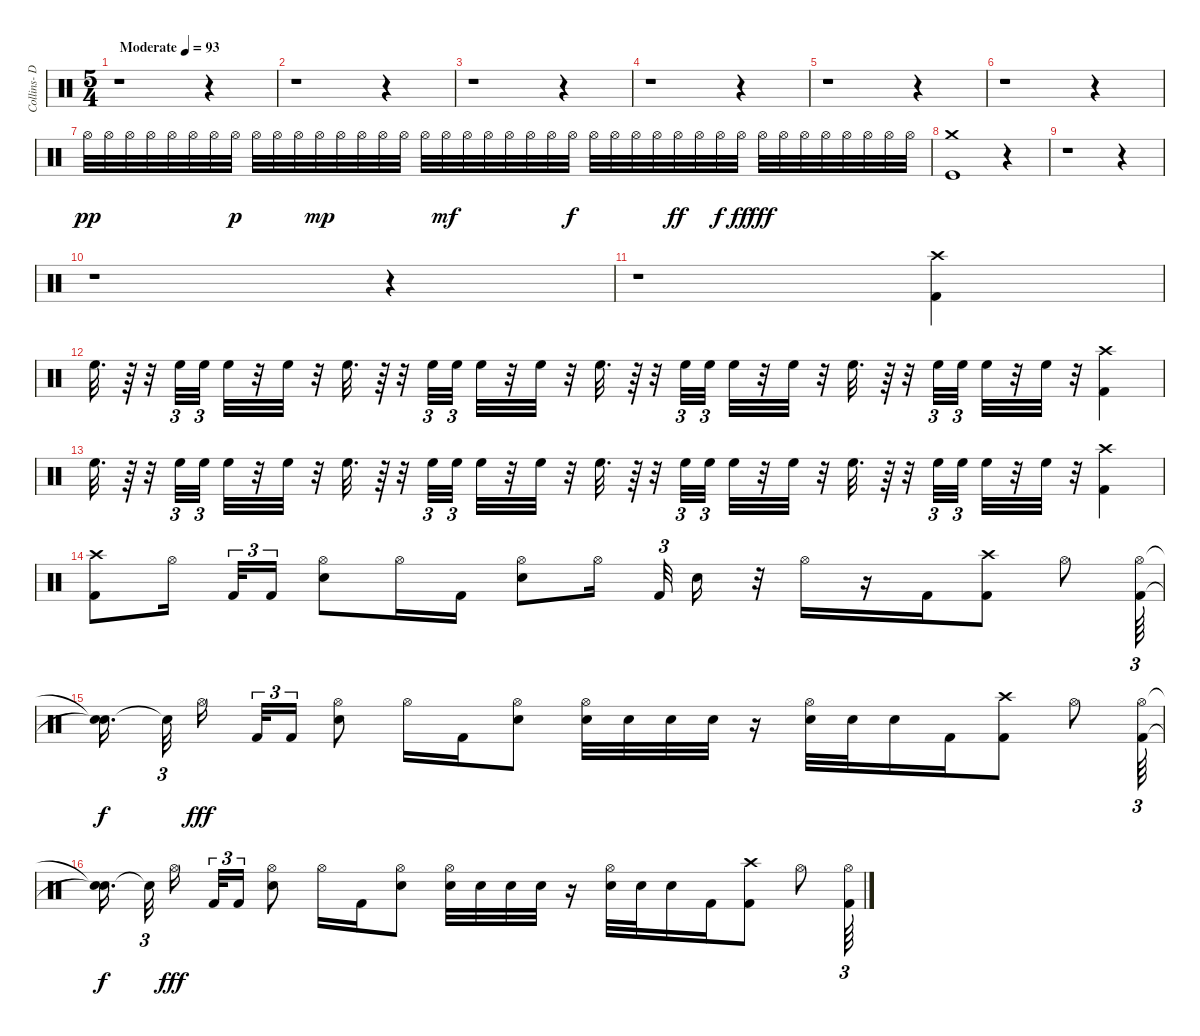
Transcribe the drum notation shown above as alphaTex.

\track ("Collins- Drums" "Collins- D") {instrument percussion}
\staff {score}
\articulation defaults
\ts (5 4)
\tempo (93 "Moderate")
\clef neutral
\ks c
r.1{dy pp} r.4 |
r.1 r.4 |
r.1 r.4 |
r.1 r.4 |
r.1 r.4 |
r.1 r.4 |
"Hi-Hat (open)".32 "Hi-Hat (open)".32 "Hi-Hat (open)".32 "Hi-Hat (open)".32 "Hi-Hat (open)".32 "Hi-Hat (open)".32 "Hi-Hat (open)".32 "Hi-Hat (open)".32{dy p} "Hi-Hat (open)".32 "Hi-Hat (open)".32 "Hi-Hat (open)".32 "Hi-Hat (open)".32{dy mp} "Hi-Hat (open)".32 "Hi-Hat (open)".32 "Hi-Hat (open)".32 "Hi-Hat (open)".32 "Hi-Hat (open)".32 "Hi-Hat (open)".32{dy mf} "Hi-Hat (open)".32 "Hi-Hat (open)".32 "Hi-Hat (open)".32 "Hi-Hat (open)".32 "Hi-Hat (open)".32 "Hi-Hat (open)".32{dy f} "Hi-Hat (open)".32 "Hi-Hat (open)".32 "Hi-Hat (open)".32 "Hi-Hat (open)".32 "Hi-Hat (open)".32{dy ff} "Hi-Hat (open)".32 "Hi-Hat (open)".32{dy f} "Hi-Hat (open)".32{dy ff} "Hi-Hat (open)".32{dy fff} "Hi-Hat (open)".32 "Hi-Hat (open)".32 "Hi-Hat (open)".32 "Hi-Hat (open)".32 "Hi-Hat (open)".32 "Hi-Hat (open)".32 "Hi-Hat (open)".32 |
("Crash medium (hit)" "Kick (hit)").1 r.4 |
r.1 r.4 |
r.1 r.4 |
r.1 ("Crash high (hit)" "Kick (hit) 2").4 |
"High Floor Tom (hit)".32{d} r.64 r.32 "High Floor Tom (hit)".32{tu (3 2)} "High Floor Tom (hit)".32{tu (3 2) beam splitsecondary} "High Floor Tom (hit)".32 r.32 "High Floor Tom (hit)".32 r.32 "High Floor Tom (hit)".32{d} r.64 r.32 "High Floor Tom (hit)".32{tu (3 2)} "High Floor Tom (hit)".32{tu (3 2) beam splitsecondary} "High Floor Tom (hit)".32 r.32 "High Floor Tom (hit)".32 r.32 "High Floor Tom (hit)".32{d} r.64 r.32 "High Floor Tom (hit)".32{tu (3 2)} "High Floor Tom (hit)".32{tu (3 2) beam splitsecondary} "High Floor Tom (hit)".32 r.32 "High Floor Tom (hit)".32 r.32 "High Floor Tom (hit)".32{d} r.64 r.32 "High Floor Tom (hit)".32{tu (3 2)} "High Floor Tom (hit)".32{tu (3 2) beam splitsecondary} "High Floor Tom (hit)".32 r.32 "High Floor Tom (hit)".32 r.32 ("Crash high (hit)" "Kick (hit) 2").4 |
"High Floor Tom (hit)".32{d} r.64 r.32 "High Floor Tom (hit)".32{tu (3 2)} "High Floor Tom (hit)".32{tu (3 2) beam splitsecondary} "High Floor Tom (hit)".32 r.32 "High Floor Tom (hit)".32 r.32 "High Floor Tom (hit)".32{d} r.64 r.32 "High Floor Tom (hit)".32{tu (3 2)} "High Floor Tom (hit)".32{tu (3 2) beam splitsecondary} "High Floor Tom (hit)".32 r.32 "High Floor Tom (hit)".32 r.32 "High Floor Tom (hit)".32{d} r.64 r.32 "High Floor Tom (hit)".32{tu (3 2)} "High Floor Tom (hit)".32{tu (3 2) beam splitsecondary} "High Floor Tom (hit)".32 r.32 "High Floor Tom (hit)".32 r.32 "High Floor Tom (hit)".32{d} r.64 r.32 "High Floor Tom (hit)".32{tu (3 2)} "High Floor Tom (hit)".32{tu (3 2) beam splitsecondary} "High Floor Tom (hit)".32 r.32 "High Floor Tom (hit)".32 r.32 ("Crash high (hit)" "Kick (hit) 2").4 |
("Crash high (hit)" "Kick (hit) 2").8 "Hi-Hat (open)".16{beam splitsecondary} "Kick (hit) 2".32{tu (3 2)} "Kick (hit) 2".16{tu (3 2)} ("Electric Snare (hit)" "Hi-Hat (open)").8 "Hi-Hat (open)".16 "Kick (hit) 2".16 ("Electric Snare (hit)" "Hi-Hat (open)").8 "Hi-Hat (open)".16{beam splitsecondary} "Kick (hit) 2".32{tu (3 2)} "Electric Snare (hit)".16 r.32 "Hi-Hat (open)".16 r.16 "Kick (hit) 2".16 ("Kick (hit) 2" "Crash high (hit)").8 "Hi-Hat (open)".8 ("Hi-Hat (open)" "Kick (hit) 2").64{tu (3 2)} |
("Snare (hit)"{t} "Snare (hit)"{t}).16{d dy f beam splitsecondary} "Snare (hit)"{t}.32{tu (3 2) beam splitsecondary} "Hi-Hat (open)".16{dy fff beam splitsecondary} "Kick (hit) 2".32{tu (3 2)} "Kick (hit) 2".16{tu (3 2)} ("Electric Snare (hit)" "Hi-Hat (open)").8 "Hi-Hat (open)".16 "Kick (hit) 2".16 ("Electric Snare (hit)" "Hi-Hat (open)").8 ("Hi-Hat (open)" "Electric Snare (hit)").32 "Electric Snare (hit)".32 "Electric Snare (hit)".32 "Electric Snare (hit)".32 r.16 ("Hi-Hat (open)" "Electric Snare (hit)").32 "Electric Snare (hit)".32 "Electric Snare (hit)".16 "Kick (hit) 2".16 ("Kick (hit) 2" "Crash high (hit)").8 "Hi-Hat (open)".8 ("Hi-Hat (open)" "Kick (hit) 2").64{tu (3 2)} |
("Snare (hit)"{t} "Snare (hit)"{t}).16{d dy f beam splitsecondary} "Snare (hit)"{t}.32{tu (3 2) beam splitsecondary} "Hi-Hat (open)".16{dy fff beam splitsecondary} "Kick (hit) 2".32{tu (3 2)} "Kick (hit) 2".16{tu (3 2)} ("Electric Snare (hit)" "Hi-Hat (open)").8 "Hi-Hat (open)".16 "Kick (hit) 2".16 ("Electric Snare (hit)" "Hi-Hat (open)").8 ("Hi-Hat (open)" "Electric Snare (hit)").32 "Electric Snare (hit)".32 "Electric Snare (hit)".32 "Electric Snare (hit)".32 r.16 ("Hi-Hat (open)" "Electric Snare (hit)").32 "Electric Snare (hit)".32 "Electric Snare (hit)".16 "Kick (hit) 2".16 ("Kick (hit) 2" "Crash high (hit)").8 "Hi-Hat (open)".8 ("Hi-Hat (open)" "Kick (hit) 2").64{tu (3 2)}
